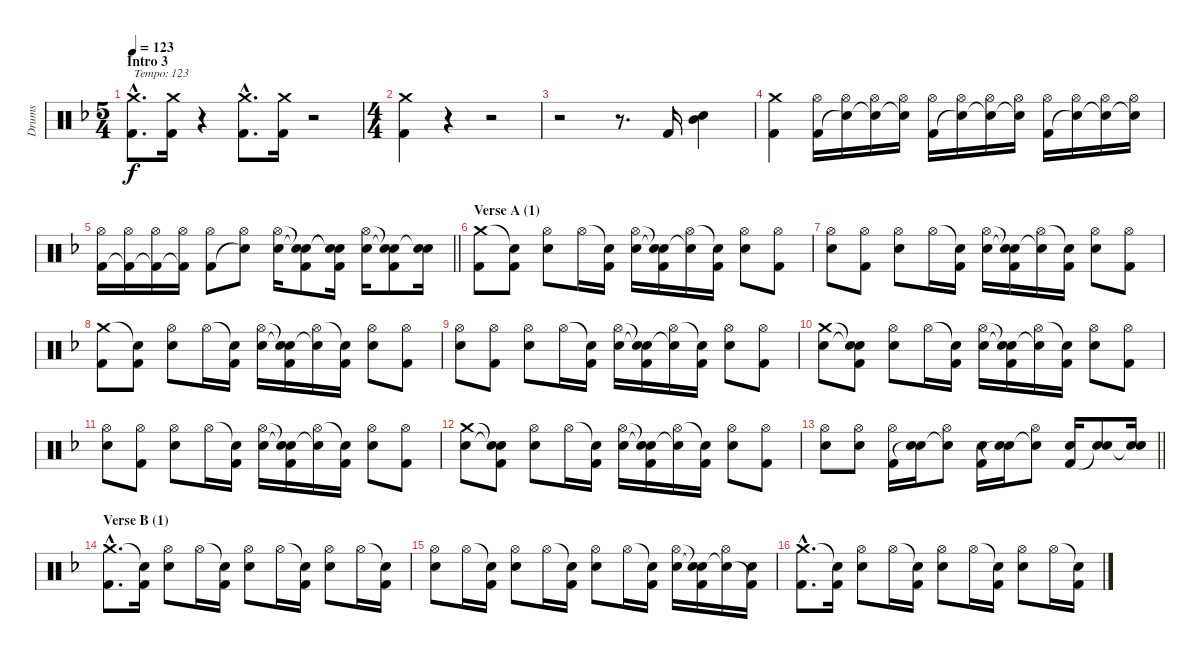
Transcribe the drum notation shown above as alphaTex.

\track ("Drums" "Drums") {instrument percussion}
\staff {score}
\articulation defaults
\ts (5 4)
\section ("" "Intro 3")
\tempo 123
\clef neutral
\ks dminor
("Crash medium (hit)"{hac} "Kick (hit) 2"{hac}).8{d txt "Tempo: 123" dy f} ("Crash medium (hit)" "Kick (hit) 2").16 r.4 ("Crash medium (hit)"{hac} "Kick (hit) 2"{hac}).8{d} ("Crash medium (hit)" "Kick (hit) 2").16 r.2 |
\ts (4 4)
("Crash medium (hit)" "Kick (hit) 2").4 r.4 r.2 |
r.2 r.8{d} "Kick (hit) 2".16 ("Electric Snare (hit)" "Mid Tom (hit)").4 |
("Crash medium (hit)" "Kick (hit) 2").4 ("Hi-Hat (open)" "Kick (hit) 2").16 ("Hi-Hat (open)" "Snare (hit)"{t}).16 ("Hi-Hat (open)" "Snare (hit)"{t}).16 ("Hi-Hat (open)" "Snare (hit)"{t}).16 ("Hi-Hat (open)" "Kick (hit) 2").16 ("Hi-Hat (open)" "Snare (hit)"{t}).16 ("Hi-Hat (open)" "Snare (hit)"{t}).16 ("Hi-Hat (open)" "Snare (hit)"{t}).16 ("Hi-Hat (open)" "Kick (hit) 2").16 ("Hi-Hat (open)" "Snare (hit)"{t}).16 ("Hi-Hat (open)" "Snare (hit)"{t}).16 ("Hi-Hat (open)" "Snare (hit)"{t}).16 |
\barLineRight lightlight
("Hi-Hat (open)" "Kick (hit) 2").16 ("Hi-Hat (open)" "Kick (hit) 2"{t}).16 ("Hi-Hat (open)" "Kick (hit) 2"{t}).16 ("Hi-Hat (open)" "Kick (hit) 2"{t}).16 ("Hi-Hat (open)" "Kick (hit) 2").8 ("Hi-Hat (open)" "Snare (hit)"{t}).8 ("Hi-Hat (open)" "Electric Snare (hit)").16 ("Snare (hit)"{t} "Snare (hit)"{t} "Kick (hit) 2").8 ("Snare (hit)"{t} "Snare (hit)"{t} "Kick (hit) 2").16 ("Hi-Hat (open)" "Electric Snare (hit)").16 ("Snare (hit)"{t} "Snare (hit)"{t} "Kick (hit) 2").8 ("Electric Snare (hit)" "Snare (hit)"{t}).16 |
\section ("" "Verse A (1)")
("Crash medium (hit)" "Kick (hit) 2").8 ("Snare (hit)"{t} "Kick (hit) 2").8 ("Hi-Hat (open)" "Electric Snare (hit)").8 "Hi-Hat (open)".16 ("Snare (hit)"{t} "Kick (hit) 2").16 ("Hi-Hat (open)" "Electric Snare (hit)").16 ("Snare (hit)"{t} "Snare (hit)"{t} "Kick (hit) 2").16 ("Hi-Hat (open)" "Snare (hit)"{t}).16 ("Snare (hit)"{t} "Kick (hit) 2").16 ("Hi-Hat (open)" "Electric Snare (hit)").8 ("Hi-Hat (open)" "Kick (hit) 2").8 |
("Hi-Hat (open)" "Electric Snare (hit)").8 ("Hi-Hat (open)" "Kick (hit) 2").8 ("Hi-Hat (open)" "Electric Snare (hit)").8 "Hi-Hat (open)".16 ("Snare (hit)"{t} "Kick (hit) 2").16 ("Hi-Hat (open)" "Electric Snare (hit)").16 ("Snare (hit)"{t} "Snare (hit)"{t} "Kick (hit) 2").16 ("Hi-Hat (open)" "Snare (hit)"{t}).16 ("Snare (hit)"{t} "Kick (hit) 2").16 ("Hi-Hat (open)" "Electric Snare (hit)").8 ("Hi-Hat (open)" "Kick (hit) 2").8 |
("Crash medium (hit)" "Kick (hit) 2").8 ("Snare (hit)"{t} "Kick (hit) 2").8 ("Hi-Hat (open)" "Electric Snare (hit)").8 "Hi-Hat (open)".16 ("Snare (hit)"{t} "Kick (hit) 2").16 ("Hi-Hat (open)" "Electric Snare (hit)").16 ("Snare (hit)"{t} "Snare (hit)"{t} "Kick (hit) 2").16 ("Hi-Hat (open)" "Snare (hit)"{t}).16 ("Snare (hit)"{t} "Kick (hit) 2").16 ("Hi-Hat (open)" "Electric Snare (hit)").8 ("Hi-Hat (open)" "Kick (hit) 2").8 |
("Hi-Hat (open)" "Electric Snare (hit)").8 ("Hi-Hat (open)" "Kick (hit) 2").8 ("Hi-Hat (open)" "Electric Snare (hit)").8 "Hi-Hat (open)".16 ("Snare (hit)"{t} "Kick (hit) 2").16 ("Hi-Hat (open)" "Electric Snare (hit)").16 ("Snare (hit)"{t} "Snare (hit)"{t} "Kick (hit) 2").16 ("Hi-Hat (open)" "Snare (hit)"{t}).16 ("Snare (hit)"{t} "Kick (hit) 2").16 ("Hi-Hat (open)" "Electric Snare (hit)").8 ("Hi-Hat (open)" "Kick (hit) 2").8 |
("Crash medium (hit)" "Electric Snare (hit)").8 ("Snare (hit)"{t} "Snare (hit)"{t} "Kick (hit) 2").8 ("Hi-Hat (open)" "Electric Snare (hit)").8 "Hi-Hat (open)".16 ("Snare (hit)"{t} "Kick (hit) 2").16 ("Hi-Hat (open)" "Electric Snare (hit)").16 ("Snare (hit)"{t} "Snare (hit)"{t} "Kick (hit) 2").16 ("Hi-Hat (open)" "Snare (hit)"{t}).16 ("Snare (hit)"{t} "Kick (hit) 2").16 ("Hi-Hat (open)" "Electric Snare (hit)").8 ("Hi-Hat (open)" "Kick (hit) 2").8 |
("Hi-Hat (open)" "Electric Snare (hit)").8 ("Hi-Hat (open)" "Kick (hit) 2").8 ("Hi-Hat (open)" "Electric Snare (hit)").8 "Hi-Hat (open)".16 ("Snare (hit)"{t} "Kick (hit) 2").16 ("Hi-Hat (open)" "Electric Snare (hit)").16 ("Snare (hit)"{t} "Snare (hit)"{t} "Kick (hit) 2").16 ("Hi-Hat (open)" "Snare (hit)"{t}).16 ("Snare (hit)"{t} "Kick (hit) 2").16 ("Hi-Hat (open)" "Electric Snare (hit)").8 ("Hi-Hat (open)" "Kick (hit) 2").8 |
("Crash medium (hit)" "Electric Snare (hit)").8 ("Snare (hit)"{t} "Snare (hit)"{t} "Kick (hit) 2").8 ("Hi-Hat (open)" "Electric Snare (hit)").8 "Hi-Hat (open)".16 ("Snare (hit)"{t} "Kick (hit) 2").16 ("Hi-Hat (open)" "Electric Snare (hit)").16 ("Snare (hit)"{t} "Snare (hit)"{t} "Kick (hit) 2").16 ("Hi-Hat (open)" "Snare (hit)"{t}).16 ("Snare (hit)"{t} "Kick (hit) 2").16 ("Hi-Hat (open)" "Electric Snare (hit)").8 ("Hi-Hat (open)" "Kick (hit) 2").8 |
\barLineRight lightlight
("Hi-Hat (open)" "Electric Snare (hit)").8 ("Hi-Hat (open)" "Electric Snare (hit)").8 ("Hi-Hat (open)" "Kick (hit) 2").16 ("Electric Snare (hit)" "Snare (hit)"{t}).16 ("Hi-Hat (open)" "Snare (hit)"{t}).8 ("Electric Snare (hit)" "Kick (hit) 2").16 ("Electric Snare (hit)" "Snare (hit)"{t}).16 ("Hi-Hat (open)" "Snare (hit)"{t}).8 ("Electric Snare (hit)" "Kick (hit) 2").16 ("Electric Snare (hit)" "Snare (hit)"{t}).8 ("Electric Snare (hit)" "Snare (hit)"{t}).16 |
\section ("" "Verse B (1)")
("Crash medium (hit)"{hac} "Kick (hit) 2"{hac}).8{d} ("Snare (hit)"{t} "Kick (hit) 2").16 ("Hi-Hat (open)" "Electric Snare (hit)").8 "Hi-Hat (open)".16 ("Snare (hit)"{t} "Kick (hit) 2").16 ("Hi-Hat (open)" "Electric Snare (hit)").8 "Hi-Hat (open)".16 ("Snare (hit)"{t} "Kick (hit) 2").16 ("Hi-Hat (open)" "Electric Snare (hit)").8 "Hi-Hat (open)".16 ("Snare (hit)"{t} "Kick (hit) 2").16 |
("Hi-Hat (open)" "Electric Snare (hit)").8 "Hi-Hat (open)".16 ("Snare (hit)"{t} "Kick (hit) 2").16 ("Hi-Hat (open)" "Electric Snare (hit)").8 "Hi-Hat (open)".16 ("Snare (hit)"{t} "Kick (hit) 2").16 ("Hi-Hat (open)" "Electric Snare (hit)").8 "Hi-Hat (open)".16 ("Snare (hit)"{t} "Kick (hit) 2").16 ("Hi-Hat (open)" "Electric Snare (hit)").16 ("Snare (hit)"{t} "Snare (hit)"{t} "Kick (hit) 2").16 ("Hi-Hat (open)" "Snare (hit)"{t}).16 ("Electric Snare (hit)" "Kick (hit) 2"{t}).16 |
("Crash medium (hit)"{hac} "Kick (hit) 2"{hac}).8{d} ("Snare (hit)"{t} "Kick (hit) 2").16 ("Hi-Hat (open)" "Electric Snare (hit)").8 "Hi-Hat (open)".16 ("Snare (hit)"{t} "Kick (hit) 2").16 ("Hi-Hat (open)" "Electric Snare (hit)").8 "Hi-Hat (open)".16 ("Snare (hit)"{t} "Kick (hit) 2").16 ("Hi-Hat (open)" "Electric Snare (hit)").8 "Hi-Hat (open)".16 ("Snare (hit)"{t} "Kick (hit) 2").16
